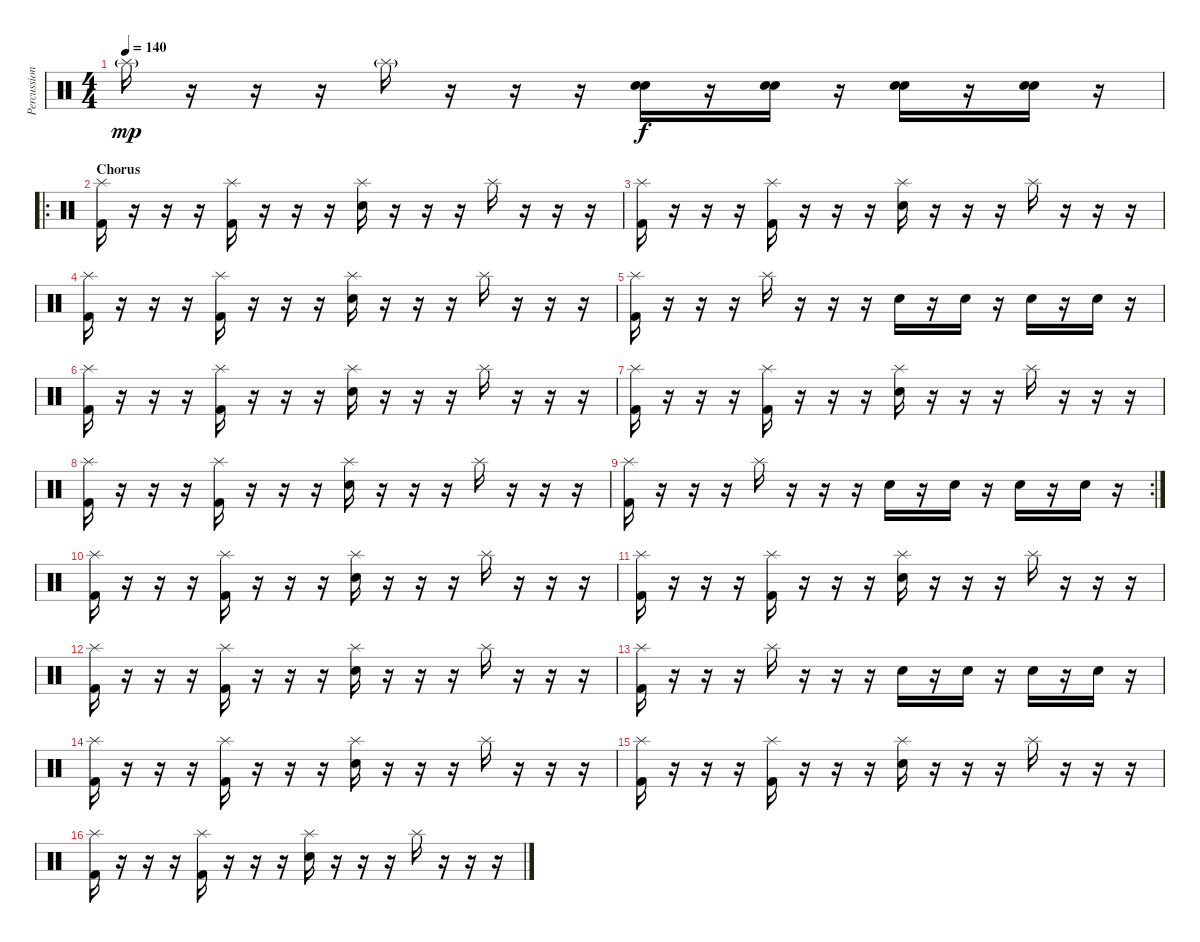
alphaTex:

\track ("Percussion" "Percussion") {instrument percussion}
\staff {score}
\articulation defaults
\ts (4 4)
\tempo 140
\clef neutral
\ks c "Splash (hit)"{g}.16{dy mp}
r.16 r.16 r.16 "Splash (hit)"{g}.16 r.16 r.16 r.16 ("Snare (hit) 2" "Electric Snare (hit)").16{dy f} r.16 ("Snare (hit) 2" "Electric Snare (hit)").16 r.16 ("Snare (hit) 2" "Electric Snare (hit)").16 r.16 ("Snare (hit) 2" "Electric Snare (hit)").16 r.16 |
\ro
\section ("" "Chorus")
("Kick (hit) 2" "Splash (hit)").16 r.16 r.16 r.16 ("Kick (hit) 2" "Splash (hit)").16 r.16 r.16 r.16 ("Snare (hit) 2" "Splash (hit)").16 r.16 r.16 r.16 "Splash (hit)".16 r.16 r.16 r.16 |
("Kick (hit) 2" "Splash (hit)").16 r.16 r.16 r.16 ("Kick (hit) 2" "Splash (hit)").16 r.16 r.16 r.16 ("Snare (hit) 2" "Splash (hit)").16 r.16 r.16 r.16 "Splash (hit)".16 r.16 r.16 r.16 |
("Kick (hit) 2" "Splash (hit)").16 r.16 r.16 r.16 ("Kick (hit) 2" "Splash (hit)").16 r.16 r.16 r.16 ("Snare (hit) 2" "Splash (hit)").16 r.16 r.16 r.16 "Splash (hit)".16 r.16 r.16 r.16 |
("Kick (hit) 2" "Splash (hit)").16 r.16 r.16 r.16 "Splash (hit)".16 r.16 r.16 r.16 "Snare (hit) 2".16 r.16 "Snare (hit) 2".16 r.16 "Snare (hit) 2".16 r.16 "Snare (hit) 2".16 r.16 |
("Kick (hit) 2" "Splash (hit)").16 r.16 r.16 r.16 ("Kick (hit) 2" "Splash (hit)").16 r.16 r.16 r.16 ("Snare (hit) 2" "Splash (hit)").16 r.16 r.16 r.16 "Splash (hit)".16 r.16 r.16 r.16 |
("Kick (hit) 2" "Splash (hit)").16 r.16 r.16 r.16 ("Kick (hit) 2" "Splash (hit)").16 r.16 r.16 r.16 ("Snare (hit) 2" "Splash (hit)").16 r.16 r.16 r.16 "Splash (hit)".16 r.16 r.16 r.16 |
("Kick (hit) 2" "Splash (hit)").16 r.16 r.16 r.16 ("Kick (hit) 2" "Splash (hit)").16 r.16 r.16 r.16 ("Snare (hit) 2" "Splash (hit)").16 r.16 r.16 r.16 "Splash (hit)".16 r.16 r.16 r.16 |
\rc 2
("Kick (hit) 2" "Splash (hit)").16 r.16 r.16 r.16 "Splash (hit)".16 r.16 r.16 r.16 "Snare (hit) 2".16 r.16 "Snare (hit) 2".16 r.16 "Snare (hit) 2".16 r.16 "Snare (hit) 2".16 r.16 |
("Kick (hit) 2" "Splash (hit)").16 r.16 r.16 r.16 ("Kick (hit) 2" "Splash (hit)").16 r.16 r.16 r.16 ("Snare (hit) 2" "Splash (hit)").16 r.16 r.16 r.16 "Splash (hit)".16 r.16 r.16 r.16 |
("Kick (hit) 2" "Splash (hit)").16 r.16 r.16 r.16 ("Kick (hit) 2" "Splash (hit)").16 r.16 r.16 r.16 ("Snare (hit) 2" "Splash (hit)").16 r.16 r.16 r.16 "Splash (hit)".16 r.16 r.16 r.16 |
("Kick (hit) 2" "Splash (hit)").16 r.16 r.16 r.16 ("Kick (hit) 2" "Splash (hit)").16 r.16 r.16 r.16 ("Snare (hit) 2" "Splash (hit)").16 r.16 r.16 r.16 "Splash (hit)".16 r.16 r.16 r.16 |
("Kick (hit) 2" "Splash (hit)").16 r.16 r.16 r.16 "Splash (hit)".16 r.16 r.16 r.16 "Snare (hit) 2".16 r.16 "Snare (hit) 2".16 r.16 "Snare (hit) 2".16 r.16 "Snare (hit) 2".16 r.16 |
("Kick (hit) 2" "Splash (hit)").16 r.16 r.16 r.16 ("Kick (hit) 2" "Splash (hit)").16 r.16 r.16 r.16 ("Snare (hit) 2" "Splash (hit)").16 r.16 r.16 r.16 "Splash (hit)".16 r.16 r.16 r.16 |
("Kick (hit) 2" "Splash (hit)").16 r.16 r.16 r.16 ("Kick (hit) 2" "Splash (hit)").16 r.16 r.16 r.16 ("Snare (hit) 2" "Splash (hit)").16 r.16 r.16 r.16 "Splash (hit)".16 r.16 r.16 r.16 |
("Kick (hit) 2" "Splash (hit)").16 r.16 r.16 r.16 ("Kick (hit) 2" "Splash (hit)").16 r.16 r.16 r.16 ("Snare (hit) 2" "Splash (hit)").16 r.16 r.16 r.16 "Splash (hit)".16 r.16 r.16 r.16
